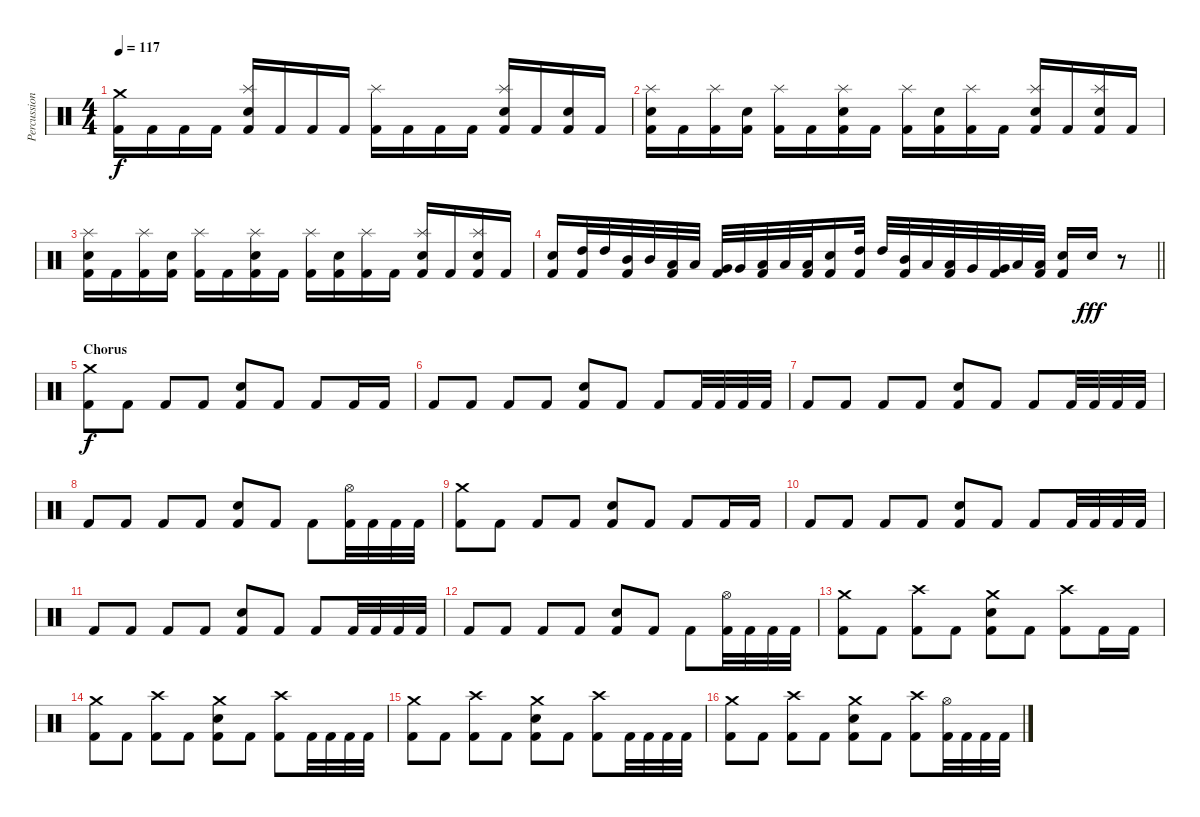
\track ("Percussioni" "Percussion") {instrument percussion}
\staff {score}
\articulation defaults
\ts (4 4)
\tempo 117
\clef neutral
\ks c
("Crash medium (hit)" "Kick (hit) 2").16{dy f} "Kick (hit) 2".16 "Kick (hit) 2".16 "Kick (hit) 2".16 ("Splash (hit)" "Electric Snare (hit)" "Kick (hit) 2").16 "Kick (hit) 2".16 "Kick (hit) 2".16 "Kick (hit) 2".16 ("Splash (hit)" "Kick (hit) 2").16 "Kick (hit) 2".16 "Kick (hit) 2".16 "Kick (hit) 2".16 ("Splash (hit)" "Electric Snare (hit)" "Kick (hit) 2").16 "Kick (hit) 2".16 ("Electric Snare (hit)" "Kick (hit) 2").16 "Kick (hit) 2".16 |
("Splash (hit)" "Electric Snare (hit)" "Kick (hit) 2").16 "Kick (hit) 2".16 ("Splash (hit)" "Kick (hit) 2").16 ("Electric Snare (hit)" "Kick (hit) 2").16 ("Splash (hit)" "Kick (hit) 2").16 "Kick (hit) 2".16 ("Splash (hit)" "Electric Snare (hit)" "Kick (hit) 2").16 "Kick (hit) 2".16 ("Splash (hit)" "Kick (hit) 2").16 ("Electric Snare (hit)" "Kick (hit) 2").16 ("Splash (hit)" "Kick (hit) 2").16 "Kick (hit) 2".16 ("Splash (hit)" "Electric Snare (hit)" "Kick (hit) 2").16 "Kick (hit) 2".16 ("Splash (hit)" "Electric Snare (hit)" "Kick (hit) 2").16 "Kick (hit) 2".16 |
("Splash (hit)" "Electric Snare (hit)" "Kick (hit) 2").16 "Kick (hit) 2".16 ("Splash (hit)" "Kick (hit) 2").16 ("Electric Snare (hit)" "Kick (hit) 2").16 ("Splash (hit)" "Kick (hit) 2").16 "Kick (hit) 2".16 ("Splash (hit)" "Electric Snare (hit)" "Kick (hit) 2").16 "Kick (hit) 2".16 ("Splash (hit)" "Kick (hit) 2").16 ("Electric Snare (hit)" "Kick (hit) 2").16 ("Splash (hit)" "Kick (hit) 2").16 "Kick (hit) 2".16 ("Splash (hit)" "Electric Snare (hit)" "Kick (hit) 2").16 "Kick (hit) 2".16 ("Splash (hit)" "Electric Snare (hit)" "Kick (hit) 2").16 "Kick (hit) 2".16 |
\barLineRight lightlight
("Electric Snare (hit)" "Kick (hit) 2").16 ("High Tom (hit)" "Kick (hit) 2").32 "High Tom (hit)".32 ("Mid Tom (hit)" "Kick (hit) 2").32 "Mid Tom (hit)".32 ("Low Tom (hit)" "Kick (hit) 2").32 "Low Tom (hit)".32 ("Very Low Tom (hit)" "Kick (hit) 2").32 "Very Low Tom (hit)".32 ("Low Floor Tom (hit)" "Kick (hit) 2").32 "Low Floor Tom (hit)".32 ("Low Floor Tom (hit)" "Kick (hit) 2").32 ("Electric Snare (hit)" "Kick (hit) 2").16 ("High Tom (hit)" "Kick (hit) 2").32 "High Tom (hit)".32 ("Mid Tom (hit)" "Kick (hit) 2").32 "Low Tom (hit)".32 ("Low Tom (hit)" "Kick (hit) 2").32 "Very Low Tom (hit)".32 ("Very Low Tom (hit)" "Kick (hit) 2").32 "Low Floor Tom (hit)".32 ("Low Floor Tom (hit)" "Kick (hit) 2").32 ("Electric Snare (hit)" "Kick (hit) 2").16 "Electric Snare (hit)".16{dy fff} r.8 |
\section ("" "Chorus")
("Crash medium (hit)" "Kick (hit) 2").8{dy f} "Kick (hit) 2".8 "Kick (hit) 2".8 "Kick (hit) 2".8 ("Electric Snare (hit)" "Kick (hit) 2").8 "Kick (hit) 2".8 "Kick (hit) 2".8 "Kick (hit) 2".16 "Kick (hit) 2".16 |
"Kick (hit) 2".8 "Kick (hit) 2".8 "Kick (hit) 2".8 "Kick (hit) 2".8 ("Electric Snare (hit)" "Kick (hit) 2").8 "Kick (hit) 2".8 "Kick (hit) 2".8 "Kick (hit) 2".32 "Kick (hit) 2".32 "Kick (hit) 2".32 "Kick (hit) 2".32 |
"Kick (hit) 2".8 "Kick (hit) 2".8 "Kick (hit) 2".8 "Kick (hit) 2".8 ("Electric Snare (hit)" "Kick (hit) 2").8 "Kick (hit) 2".8 "Kick (hit) 2".8 "Kick (hit) 2".32 "Kick (hit) 2".32 "Kick (hit) 2".32 "Kick (hit) 2".32 |
"Kick (hit) 2".8 "Kick (hit) 2".8 "Kick (hit) 2".8 "Kick (hit) 2".8 ("Electric Snare (hit)" "Kick (hit) 2").8 "Kick (hit) 2".8 "Kick (hit) 2".8 ("Hi-Hat (open)" "Kick (hit) 2").32 "Kick (hit) 2".32 "Kick (hit) 2".32 "Kick (hit) 2".32 |
("Crash medium (hit)" "Kick (hit) 2").8 "Kick (hit) 2".8 "Kick (hit) 2".8 "Kick (hit) 2".8 ("Electric Snare (hit)" "Kick (hit) 2").8 "Kick (hit) 2".8 "Kick (hit) 2".8 "Kick (hit) 2".16 "Kick (hit) 2".16 |
"Kick (hit) 2".8 "Kick (hit) 2".8 "Kick (hit) 2".8 "Kick (hit) 2".8 ("Electric Snare (hit)" "Kick (hit) 2").8 "Kick (hit) 2".8 "Kick (hit) 2".8 "Kick (hit) 2".32 "Kick (hit) 2".32 "Kick (hit) 2".32 "Kick (hit) 2".32 |
"Kick (hit) 2".8 "Kick (hit) 2".8 "Kick (hit) 2".8 "Kick (hit) 2".8 ("Electric Snare (hit)" "Kick (hit) 2").8 "Kick (hit) 2".8 "Kick (hit) 2".8 "Kick (hit) 2".32 "Kick (hit) 2".32 "Kick (hit) 2".32 "Kick (hit) 2".32 |
"Kick (hit) 2".8 "Kick (hit) 2".8 "Kick (hit) 2".8 "Kick (hit) 2".8 ("Electric Snare (hit)" "Kick (hit) 2").8 "Kick (hit) 2".8 "Kick (hit) 2".8 ("Hi-Hat (open)" "Kick (hit) 2").32 "Kick (hit) 2".32 "Kick (hit) 2".32 "Kick (hit) 2".32 |
("Crash medium (hit)" "Kick (hit) 2").8 "Kick (hit) 2".8 ("Crash high (hit)" "Kick (hit) 2").8 "Kick (hit) 2".8 ("Crash medium (hit)" "Electric Snare (hit)" "Kick (hit) 2").8 "Kick (hit) 2".8 ("Crash high (hit)" "Kick (hit) 2").8 "Kick (hit) 2".16 "Kick (hit) 2".16 |
("Crash medium (hit)" "Kick (hit) 2").8 "Kick (hit) 2".8 ("Crash high (hit)" "Kick (hit) 2").8 "Kick (hit) 2".8 ("Crash medium (hit)" "Electric Snare (hit)" "Kick (hit) 2").8 "Kick (hit) 2".8 ("Crash high (hit)" "Kick (hit) 2").8 "Kick (hit) 2".32 "Kick (hit) 2".32 "Kick (hit) 2".32 "Kick (hit) 2".32 |
("Crash medium (hit)" "Kick (hit) 2").8 "Kick (hit) 2".8 ("Crash high (hit)" "Kick (hit) 2").8 "Kick (hit) 2".8 ("Crash medium (hit)" "Electric Snare (hit)" "Kick (hit) 2").8 "Kick (hit) 2".8 ("Crash high (hit)" "Kick (hit) 2").8 "Kick (hit) 2".32 "Kick (hit) 2".32 "Kick (hit) 2".32 "Kick (hit) 2".32 |
("Crash medium (hit)" "Kick (hit) 2").8 "Kick (hit) 2".8 ("Crash high (hit)" "Kick (hit) 2").8 "Kick (hit) 2".8 ("Crash medium (hit)" "Electric Snare (hit)" "Kick (hit) 2").8 "Kick (hit) 2".8 ("Crash high (hit)" "Kick (hit) 2").8 ("Hi-Hat (open)" "Kick (hit) 2").32 "Kick (hit) 2".32 "Kick (hit) 2".32 "Kick (hit) 2".32
